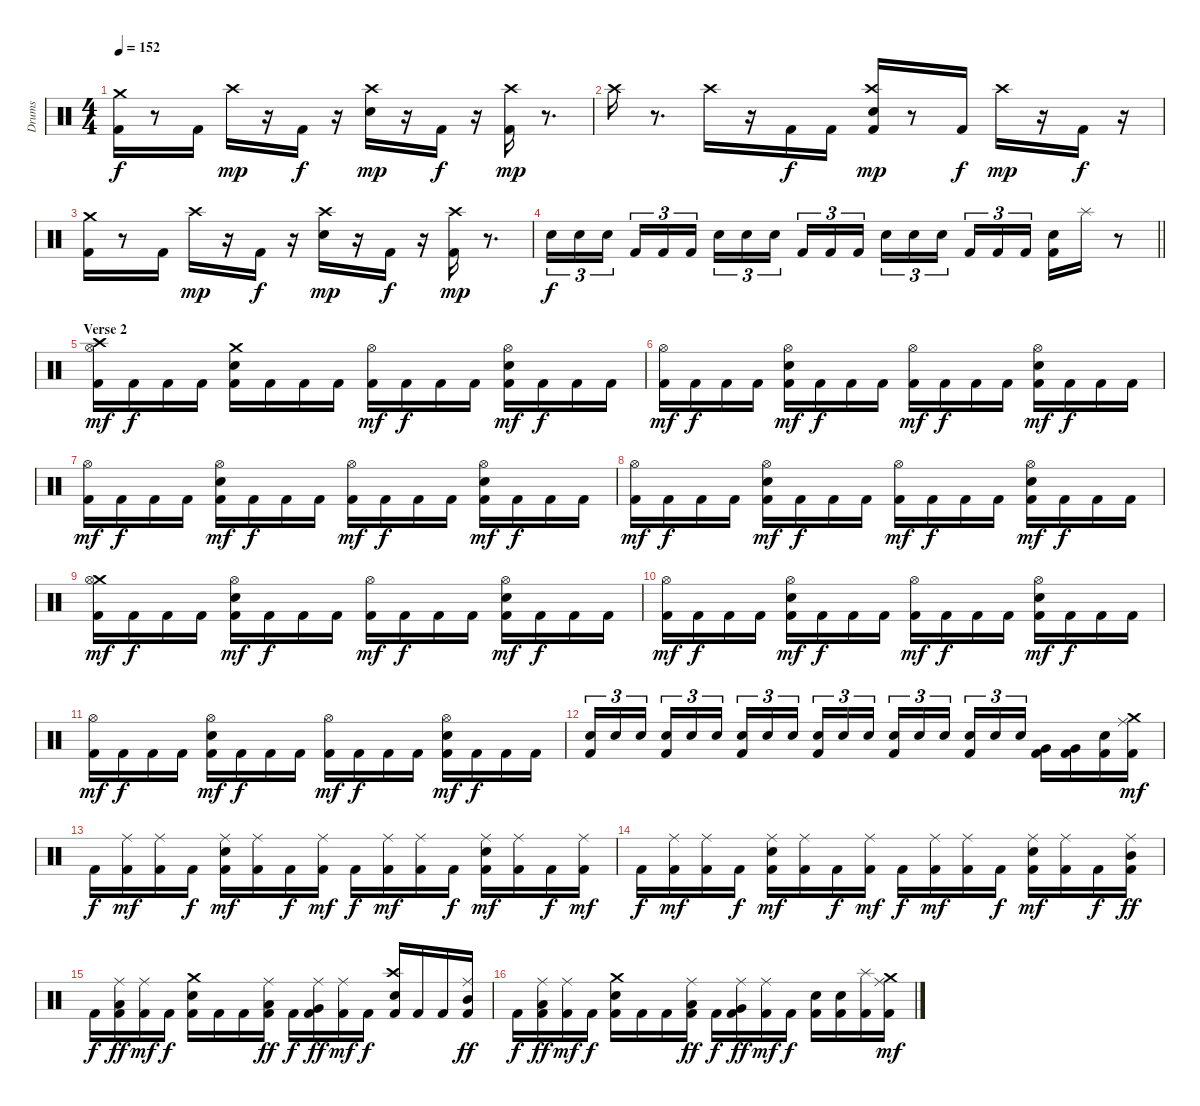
\track ("Drums" "Drums") {instrument percussion}
\staff {score}
\articulation defaults
\ts (4 4)
\tempo 152
\clef neutral
\ks c
("Crash medium (hit)" "Kick (hit) 2").16{dy f} r.8 "Kick (hit) 2".16 "Crash high (hit)".16{dy mp} r.16 "Kick (hit) 2".16{dy f} r.16 ("Crash high (hit)" "Snare (hit) 2").16{dy mp} r.16 "Kick (hit) 2".16{dy f} r.16 ("Crash high (hit)" "Kick (hit) 2").16{dy mp} r.8{d} |
"Crash high (hit)".16 r.8{d} "Crash high (hit)".16 r.16 "Kick (hit) 2".16{dy f} "Kick (hit) 2".16 ("Crash high (hit)" "Snare (hit) 2" "Kick (hit) 2").16{dy mp} r.8 "Kick (hit) 2".16{dy f} "Crash high (hit)".16{dy mp} r.16 "Kick (hit) 2".16{dy f} r.16 |
("Crash medium (hit)" "Kick (hit) 2").16 r.8 "Kick (hit) 2".16 "Crash high (hit)".16{dy mp} r.16 "Kick (hit) 2".16{dy f} r.16 ("Crash high (hit)" "Snare (hit) 2").16{dy mp} r.16 "Kick (hit) 2".16{dy f} r.16 ("Crash high (hit)" "Kick (hit) 2").16{dy mp} r.8{d} |
\barLineRight lightlight "Snare (hit) 2".16{tu (3 2) dy f} "Snare (hit) 2".16{tu (3 2)} "Snare (hit) 2".16{tu (3 2)} "Kick (hit) 2".16{tu (3 2)} "Kick (hit) 2".16{tu (3 2)} "Kick (hit) 2".16{tu (3 2)} "Snare (hit) 2".16{tu (3 2)} "Snare (hit) 2".16{tu (3 2)} "Snare (hit) 2".16{tu (3 2)} "Kick (hit) 2".16{tu (3 2)} "Kick (hit) 2".16{tu (3 2)} "Kick (hit) 2".16{tu (3 2)} "Snare (hit) 2".16{tu (3 2)} "Snare (hit) 2".16{tu (3 2)} "Snare (hit) 2".16{tu (3 2)} "Kick (hit) 2".16{tu (3 2)} "Kick (hit) 2".16{tu (3 2)} "Kick (hit) 2".16{tu (3 2)}
("Snare (hit) 2" "Kick (hit) 2").16 "Splash (hit)".16 r.8 |
\section ("" "Verse 2")
("Crash high (hit)" "Hi-Hat (open)" "Kick (hit) 2").16{dy mf} "Kick (hit) 2".16{dy f} "Kick (hit) 2".16 "Kick (hit) 2".16 ("Crash medium (hit)" "Snare (hit) 2" "Kick (hit) 2").16 "Kick (hit) 2".16 "Kick (hit) 2".16 "Kick (hit) 2".16 ("Hi-Hat (open)" "Kick (hit) 2").16{dy mf} "Kick (hit) 2".16{dy f} "Kick (hit) 2".16 "Kick (hit) 2".16 ("Hi-Hat (open)" "Snare (hit) 2" "Kick (hit) 2").16{dy mf} "Kick (hit) 2".16{dy f} "Kick (hit) 2".16 "Kick (hit) 2".16 |
("Hi-Hat (open)" "Kick (hit) 2").16{dy mf} "Kick (hit) 2".16{dy f} "Kick (hit) 2".16 "Kick (hit) 2".16 ("Hi-Hat (open)" "Snare (hit) 2" "Kick (hit) 2").16{dy mf} "Kick (hit) 2".16{dy f} "Kick (hit) 2".16 "Kick (hit) 2".16 ("Hi-Hat (open)" "Kick (hit) 2").16{dy mf} "Kick (hit) 2".16{dy f} "Kick (hit) 2".16 "Kick (hit) 2".16 ("Hi-Hat (open)" "Snare (hit) 2" "Kick (hit) 2").16{dy mf} "Kick (hit) 2".16{dy f} "Kick (hit) 2".16 "Kick (hit) 2".16 |
("Hi-Hat (open)" "Kick (hit) 2").16{dy mf} "Kick (hit) 2".16{dy f} "Kick (hit) 2".16 "Kick (hit) 2".16 ("Hi-Hat (open)" "Snare (hit) 2" "Kick (hit) 2").16{dy mf} "Kick (hit) 2".16{dy f} "Kick (hit) 2".16 "Kick (hit) 2".16 ("Hi-Hat (open)" "Kick (hit) 2").16{dy mf} "Kick (hit) 2".16{dy f} "Kick (hit) 2".16 "Kick (hit) 2".16 ("Hi-Hat (open)" "Snare (hit) 2" "Kick (hit) 2").16{dy mf} "Kick (hit) 2".16{dy f} "Kick (hit) 2".16 "Kick (hit) 2".16 |
("Hi-Hat (open)" "Kick (hit) 2").16{dy mf} "Kick (hit) 2".16{dy f} "Kick (hit) 2".16 "Kick (hit) 2".16 ("Hi-Hat (open)" "Snare (hit) 2" "Kick (hit) 2").16{dy mf} "Kick (hit) 2".16{dy f} "Kick (hit) 2".16 "Kick (hit) 2".16 ("Hi-Hat (open)" "Kick (hit) 2").16{dy mf} "Kick (hit) 2".16{dy f} "Kick (hit) 2".16 "Kick (hit) 2".16 ("Hi-Hat (open)" "Snare (hit) 2" "Kick (hit) 2").16{dy mf} "Kick (hit) 2".16{dy f} "Kick (hit) 2".16 "Kick (hit) 2".16 |
("Crash medium (hit)" "Hi-Hat (open)" "Kick (hit) 2").16{dy mf} "Kick (hit) 2".16{dy f} "Kick (hit) 2".16 "Kick (hit) 2".16 ("Hi-Hat (open)" "Snare (hit) 2" "Kick (hit) 2").16{dy mf} "Kick (hit) 2".16{dy f} "Kick (hit) 2".16 "Kick (hit) 2".16 ("Hi-Hat (open)" "Kick (hit) 2").16{dy mf} "Kick (hit) 2".16{dy f} "Kick (hit) 2".16 "Kick (hit) 2".16 ("Hi-Hat (open)" "Snare (hit) 2" "Kick (hit) 2").16{dy mf} "Kick (hit) 2".16{dy f} "Kick (hit) 2".16 "Kick (hit) 2".16 |
("Hi-Hat (open)" "Kick (hit) 2").16{dy mf} "Kick (hit) 2".16{dy f} "Kick (hit) 2".16 "Kick (hit) 2".16 ("Hi-Hat (open)" "Snare (hit) 2" "Kick (hit) 2").16{dy mf} "Kick (hit) 2".16{dy f} "Kick (hit) 2".16 "Kick (hit) 2".16 ("Hi-Hat (open)" "Kick (hit) 2").16{dy mf} "Kick (hit) 2".16{dy f} "Kick (hit) 2".16 "Kick (hit) 2".16 ("Hi-Hat (open)" "Snare (hit) 2" "Kick (hit) 2").16{dy mf} "Kick (hit) 2".16{dy f} "Kick (hit) 2".16 "Kick (hit) 2".16 |
("Hi-Hat (open)" "Kick (hit) 2").16{dy mf} "Kick (hit) 2".16{dy f} "Kick (hit) 2".16 "Kick (hit) 2".16 ("Hi-Hat (open)" "Snare (hit) 2" "Kick (hit) 2").16{dy mf} "Kick (hit) 2".16{dy f} "Kick (hit) 2".16 "Kick (hit) 2".16 ("Hi-Hat (open)" "Kick (hit) 2").16{dy mf} "Kick (hit) 2".16{dy f} "Kick (hit) 2".16 "Kick (hit) 2".16 ("Hi-Hat (open)" "Snare (hit) 2" "Kick (hit) 2").16{dy mf} "Kick (hit) 2".16{dy f} "Kick (hit) 2".16 "Kick (hit) 2".16 |
("Snare (hit) 2" "Kick (hit) 2").16{tu (3 2)} "Snare (hit) 2".16{tu (3 2)} "Snare (hit) 2".16{tu (3 2)} ("Snare (hit) 2" "Kick (hit) 2").16{tu (3 2)} "Snare (hit) 2".16{tu (3 2)} "Snare (hit) 2".16{tu (3 2)} ("Snare (hit) 2" "Kick (hit) 2").16{tu (3 2)} "Snare (hit) 2".16{tu (3 2)} "Snare (hit) 2".16{tu (3 2)} ("Snare (hit) 2" "Kick (hit) 2").16{tu (3 2)} "Snare (hit) 2".16{tu (3 2)} "Snare (hit) 2".16{tu (3 2)} ("Snare (hit) 2" "Kick (hit) 2").16{tu (3 2)} "Snare (hit) 2".16{tu (3 2)} "Snare (hit) 2".16{tu (3 2)} ("Snare (hit) 2" "Kick (hit) 2").16{tu (3 2)} "Snare (hit) 2".16{tu (3 2)} "Snare (hit) 2".16{tu (3 2)} ("Very Low Tom (hit)" "Kick (hit) 2").16 ("Very Low Tom (hit)" "Kick (hit) 2").16 ("Snare (hit) 2" "Kick (hit) 2").16 ("Crash medium (hit)" "Ride (middle)" "Kick (hit) 2").16{dy mf} |
"Kick (hit) 2".16{dy f} ("Ride (middle)" "Kick (hit) 2").16{dy mf} ("Ride (middle)" "Kick (hit) 2").16 "Kick (hit) 2".16{dy f} ("Ride (middle)" "Snare (hit) 2" "Kick (hit) 2").16{dy mf} ("Ride (middle)" "Kick (hit) 2").16 "Kick (hit) 2".16{dy f} ("Ride (middle)" "Kick (hit) 2").16{dy mf} "Kick (hit) 2".16{dy f} ("Ride (middle)" "Kick (hit) 2").16{dy mf} ("Ride (middle)" "Kick (hit) 2").16 "Kick (hit) 2".16{dy f} ("Ride (middle)" "Snare (hit) 2" "Kick (hit) 2").16{dy mf} ("Ride (middle)" "Kick (hit) 2").16 "Kick (hit) 2".16{dy f} ("Ride (middle)" "Kick (hit) 2").16{dy mf} |
"Kick (hit) 2".16{dy f} ("Ride (middle)" "Kick (hit) 2").16{dy mf} ("Ride (middle)" "Kick (hit) 2").16 "Kick (hit) 2".16{dy f} ("Ride (middle)" "Snare (hit) 2" "Kick (hit) 2").16{dy mf} ("Ride (middle)" "Kick (hit) 2").16 "Kick (hit) 2".16{dy f} ("Ride (middle)" "Kick (hit) 2").16{dy mf} "Kick (hit) 2".16{dy f} ("Ride (middle)" "Kick (hit) 2").16{dy mf} ("Ride (middle)" "Kick (hit) 2").16 "Kick (hit) 2".16{dy f} ("Ride (middle)" "Snare (hit) 2" "Kick (hit) 2").16{dy mf} ("Ride (middle)" "Kick (hit) 2").16 "Kick (hit) 2".16{dy f} ("Ride (middle)" "Mid Tom (hit)" "Kick (hit) 2").16{dy ff} |
"Kick (hit) 2".16{dy f} ("Ride (middle)" "Low Tom (hit)" "Kick (hit) 2").16{dy ff} ("Ride (middle)" "Kick (hit) 2").16{dy mf} "Kick (hit) 2".16{dy f} ("Crash medium (hit)" "Snare (hit) 2" "Kick (hit) 2").16 "Kick (hit) 2".16 "Kick (hit) 2".16 ("Ride (middle)" "Low Tom (hit)" "Kick (hit) 2").16{dy ff} "Kick (hit) 2".16{dy f} ("Ride (middle)" "Very Low Tom (hit)" "Kick (hit) 2").16{dy ff} ("Ride (middle)" "Kick (hit) 2").16{dy mf} "Kick (hit) 2".16{dy f} ("Crash high (hit)" "Snare (hit) 2" "Kick (hit) 2").16 "Kick (hit) 2".16 "Kick (hit) 2".16 ("Ride (middle)" "Mid Tom (hit)" "Kick (hit) 2").16{dy ff} |
"Kick (hit) 2".16{dy f} ("Ride (middle)" "Low Tom (hit)" "Kick (hit) 2").16{dy ff} ("Ride (middle)" "Kick (hit) 2").16{dy mf} "Kick (hit) 2".16{dy f} ("Crash medium (hit)" "Snare (hit) 2" "Kick (hit) 2").16 "Kick (hit) 2".16 "Kick (hit) 2".16 ("Ride (middle)" "Low Tom (hit)" "Kick (hit) 2").16{dy ff} "Kick (hit) 2".16{dy f} ("Ride (middle)" "Very Low Tom (hit)" "Kick (hit) 2").16{dy ff} ("Ride (middle)" "Kick (hit) 2").16{dy mf} "Kick (hit) 2".16{dy f} ("Snare (hit) 2" "Kick (hit) 2").16 ("Snare (hit) 2" "Kick (hit) 2").16 ("Splash (hit)" "Kick (hit) 2").16 ("Crash medium (hit)" "Ride (middle)" "Kick (hit) 2").16{dy mf}
